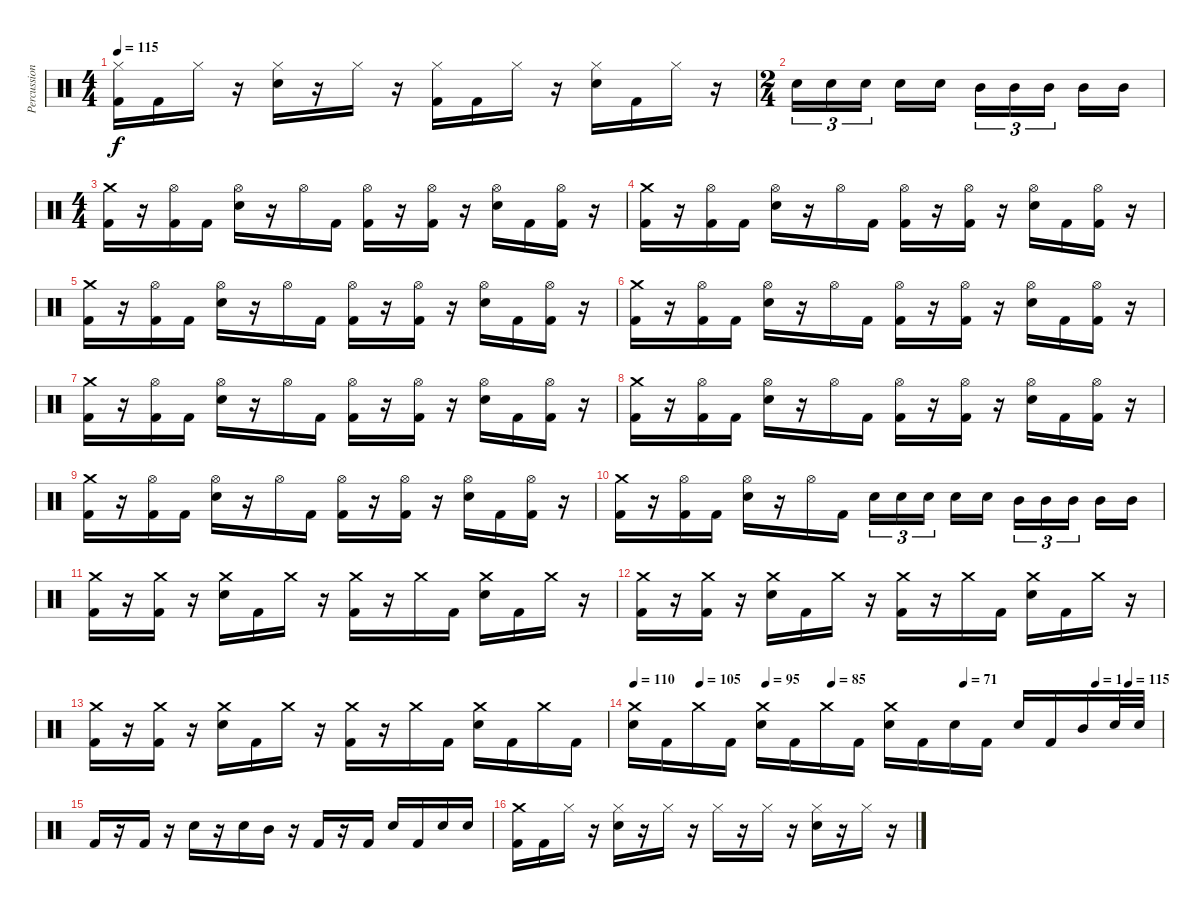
\track ("Percussion" "Percussion") {instrument percussion}
\staff {score}
\articulation defaults
\ts (4 4)
\tempo 115
\clef neutral
\ks c
("Hi-Hat (closed)" "Kick (hit) 2").16{dy f} "Kick (hit) 2".16 "Hi-Hat (closed)".16 r.16 ("Hi-Hat (closed)" "Electric Snare (hit)").16 r.16 "Hi-Hat (closed)".16 r.16 ("Hi-Hat (closed)" "Kick (hit) 2").16 "Kick (hit) 2".16 "Hi-Hat (closed)".16 r.16 ("Hi-Hat (closed)" "Electric Snare (hit)").16 "Kick (hit) 2".16 "Hi-Hat (closed)".16 r.16 |
\ts (2 4)
"Electric Snare (hit)".16{tu (3 2)} "Electric Snare (hit)".16{tu (3 2)} "Electric Snare (hit)".16{tu (3 2)} "Electric Snare (hit)".16 "Electric Snare (hit)".16 "Mid Tom (hit)".16{tu (3 2)} "Mid Tom (hit)".16{tu (3 2)} "Mid Tom (hit)".16{tu (3 2)} "Mid Tom (hit)".16 "Mid Tom (hit)".16 |
\ts (4 4)
("Crash medium (hit)" "Kick (hit) 2").16 r.16 ("Hi-Hat (open)" "Kick (hit) 2").16 "Kick (hit) 2".16 ("Hi-Hat (open)" "Electric Snare (hit)").16 r.16 "Hi-Hat (open)".16 "Kick (hit) 2".16 ("Hi-Hat (open)" "Kick (hit) 2").16 r.16 ("Hi-Hat (open)" "Kick (hit) 2").16 r.16 ("Hi-Hat (open)" "Electric Snare (hit)").16 "Kick (hit) 2".16 ("Hi-Hat (open)" "Kick (hit) 2").16 r.16 |
("Crash medium (hit)" "Kick (hit) 2").16 r.16 ("Hi-Hat (open)" "Kick (hit) 2").16 "Kick (hit) 2".16 ("Hi-Hat (open)" "Electric Snare (hit)").16 r.16 "Hi-Hat (open)".16 "Kick (hit) 2".16 ("Hi-Hat (open)" "Kick (hit) 2").16 r.16 ("Hi-Hat (open)" "Kick (hit) 2").16 r.16 ("Hi-Hat (open)" "Electric Snare (hit)").16 "Kick (hit) 2".16 ("Hi-Hat (open)" "Kick (hit) 2").16 r.16 |
("Crash medium (hit)" "Kick (hit) 2").16 r.16 ("Hi-Hat (open)" "Kick (hit) 2").16 "Kick (hit) 2".16 ("Hi-Hat (open)" "Electric Snare (hit)").16 r.16 "Hi-Hat (open)".16 "Kick (hit) 2".16 ("Hi-Hat (open)" "Kick (hit) 2").16 r.16 ("Hi-Hat (open)" "Kick (hit) 2").16 r.16 ("Hi-Hat (open)" "Electric Snare (hit)").16 "Kick (hit) 2".16 ("Hi-Hat (open)" "Kick (hit) 2").16 r.16 |
("Crash medium (hit)" "Kick (hit) 2").16 r.16 ("Hi-Hat (open)" "Kick (hit) 2").16 "Kick (hit) 2".16 ("Hi-Hat (open)" "Electric Snare (hit)").16 r.16 "Hi-Hat (open)".16 "Kick (hit) 2".16 ("Hi-Hat (open)" "Kick (hit) 2").16 r.16 ("Hi-Hat (open)" "Kick (hit) 2").16 r.16 ("Hi-Hat (open)" "Electric Snare (hit)").16 "Kick (hit) 2".16 ("Hi-Hat (open)" "Kick (hit) 2").16 r.16 |
("Crash medium (hit)" "Kick (hit) 2").16 r.16 ("Hi-Hat (open)" "Kick (hit) 2").16 "Kick (hit) 2".16 ("Hi-Hat (open)" "Electric Snare (hit)").16 r.16 "Hi-Hat (open)".16 "Kick (hit) 2".16 ("Hi-Hat (open)" "Kick (hit) 2").16 r.16 ("Hi-Hat (open)" "Kick (hit) 2").16 r.16 ("Hi-Hat (open)" "Electric Snare (hit)").16 "Kick (hit) 2".16 ("Hi-Hat (open)" "Kick (hit) 2").16 r.16 |
("Crash medium (hit)" "Kick (hit) 2").16 r.16 ("Hi-Hat (open)" "Kick (hit) 2").16 "Kick (hit) 2".16 ("Hi-Hat (open)" "Electric Snare (hit)").16 r.16 "Hi-Hat (open)".16 "Kick (hit) 2".16 ("Hi-Hat (open)" "Kick (hit) 2").16 r.16 ("Hi-Hat (open)" "Kick (hit) 2").16 r.16 ("Hi-Hat (open)" "Electric Snare (hit)").16 "Kick (hit) 2".16 ("Hi-Hat (open)" "Kick (hit) 2").16 r.16 |
("Crash medium (hit)" "Kick (hit) 2").16 r.16 ("Hi-Hat (open)" "Kick (hit) 2").16 "Kick (hit) 2".16 ("Hi-Hat (open)" "Electric Snare (hit)").16 r.16 "Hi-Hat (open)".16 "Kick (hit) 2".16 ("Hi-Hat (open)" "Kick (hit) 2").16 r.16 ("Hi-Hat (open)" "Kick (hit) 2").16 r.16 ("Hi-Hat (open)" "Electric Snare (hit)").16 "Kick (hit) 2".16 ("Hi-Hat (open)" "Kick (hit) 2").16 r.16 |
("Crash medium (hit)" "Kick (hit) 2").16 r.16 ("Hi-Hat (open)" "Kick (hit) 2").16 "Kick (hit) 2".16 ("Hi-Hat (open)" "Electric Snare (hit)").16 r.16 "Hi-Hat (open)".16 "Kick (hit) 2".16 "Electric Snare (hit)".16{tu (3 2)} "Electric Snare (hit)".16{tu (3 2)} "Electric Snare (hit)".16{tu (3 2)} "Electric Snare (hit)".16 "Electric Snare (hit)".16 "Mid Tom (hit)".16{tu (3 2)} "Mid Tom (hit)".16{tu (3 2)} "Mid Tom (hit)".16{tu (3 2)} "Mid Tom (hit)".16 "Mid Tom (hit)".16 |
("Crash medium (hit)" "Kick (hit) 2").16 r.16 ("Crash medium (hit)" "Kick (hit) 2").16 r.16 ("Crash medium (hit)" "Electric Snare (hit)").16 "Kick (hit) 2".16 "Crash medium (hit)".16 r.16 ("Crash medium (hit)" "Kick (hit) 2").16 r.16 "Crash medium (hit)".16 "Kick (hit) 2".16 ("Crash medium (hit)" "Electric Snare (hit)").16 "Kick (hit) 2".16 "Crash medium (hit)".16 r.16 |
("Crash medium (hit)" "Kick (hit) 2").16 r.16 ("Crash medium (hit)" "Kick (hit) 2").16 r.16 ("Crash medium (hit)" "Electric Snare (hit)").16 "Kick (hit) 2".16 "Crash medium (hit)".16 r.16 ("Crash medium (hit)" "Kick (hit) 2").16 r.16 "Crash medium (hit)".16 "Kick (hit) 2".16 ("Crash medium (hit)" "Electric Snare (hit)").16 "Kick (hit) 2".16 "Crash medium (hit)".16 r.16 |
("Crash medium (hit)" "Kick (hit) 2").16 r.16 ("Crash medium (hit)" "Kick (hit) 2").16 r.16 ("Crash medium (hit)" "Electric Snare (hit)").16 "Kick (hit) 2".16 "Crash medium (hit)".16 r.16 ("Crash medium (hit)" "Kick (hit) 2").16 r.16 "Crash medium (hit)".16 "Kick (hit) 2".16 ("Crash medium (hit)" "Electric Snare (hit)").16 "Kick (hit) 2".16 "Crash medium (hit)".16 "Kick (hit) 2".16 |
\tempo 110
\tempo (105 0.125)
\tempo (95 0.25)
\tempo (85 0.375)
\tempo (71 0.625)
\tempo (1 0.875)
\tempo (115 0.9375)
("Crash medium (hit)" "Electric Snare (hit)").16 "Kick (hit) 2".16 "Crash medium (hit)".16 "Kick (hit) 2".16 ("Crash medium (hit)" "Electric Snare (hit)").16 "Kick (hit) 2".16 "Crash medium (hit)".16 "Kick (hit) 2".16 ("Crash medium (hit)" "Electric Snare (hit)").16 "Kick (hit) 2".16 "Electric Snare (hit)".16 "Kick (hit) 2".16 "Electric Snare (hit)".16 "Kick (hit) 2".16 "Mid Tom (hit)".16 "Electric Snare (hit)".32 "Electric Snare (hit)".32 |
"Kick (hit) 2".16 r.16 "Kick (hit) 2".16 r.16 "Electric Snare (hit)".16 r.16 "Electric Snare (hit)".16 "Mid Tom (hit)".16 r.16 "Kick (hit) 2".16 r.16 "Kick (hit) 2".16 "Electric Snare (hit)".16 "Kick (hit) 2".16 "Electric Snare (hit)".16 "Electric Snare (hit)".16 |
("Crash medium (hit)" "Kick (hit) 2").16 "Kick (hit) 2".16 "Hi-Hat (closed)".16 r.16 ("Hi-Hat (closed)" "Electric Snare (hit)").16 r.16 "Hi-Hat (closed)".16 r.16 "Hi-Hat (closed)".16 r.16 "Hi-Hat (closed)".16 r.16 ("Hi-Hat (closed)" "Electric Snare (hit)").16 r.16 "Hi-Hat (closed)".16 r.16
